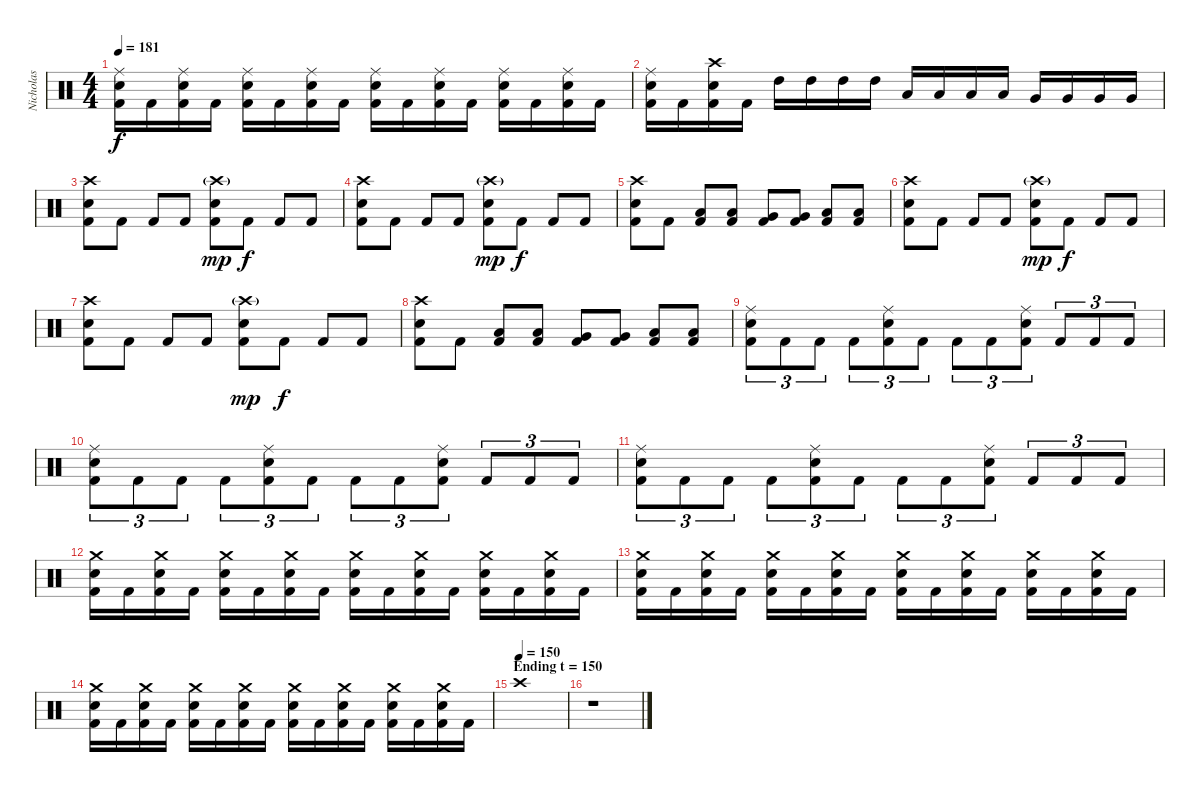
\track ("Nicholas" "Nicholas") {instrument percussion}
\staff {score}
\articulation defaults
\ts (4 4)
\tempo 181
\clef neutral
\ks c
("Ride (middle)" "Electric Snare (hit)" "Kick (hit) 2").16{dy f} "Kick (hit) 2".16 ("Ride (middle)" "Electric Snare (hit)" "Kick (hit) 2").16 "Kick (hit) 2".16 ("Ride (middle)" "Electric Snare (hit)" "Kick (hit) 2").16 "Kick (hit) 2".16 ("Ride (middle)" "Electric Snare (hit)" "Kick (hit) 2").16 "Kick (hit) 2".16 ("Ride (middle)" "Electric Snare (hit)" "Kick (hit) 2").16 "Kick (hit) 2".16 ("Ride (middle)" "Electric Snare (hit)" "Kick (hit) 2").16 "Kick (hit) 2".16 ("Ride (middle)" "Electric Snare (hit)" "Kick (hit) 2").16 "Kick (hit) 2".16 ("Ride (middle)" "Electric Snare (hit)" "Kick (hit) 2").16 "Kick (hit) 2".16 |
("Ride (middle)" "Electric Snare (hit)" "Kick (hit) 2").16 "Kick (hit) 2".16 ("Crash high (hit)" "Electric Snare (hit)" "Kick (hit) 2").16 "Kick (hit) 2".16 "High Tom (hit)".16 "High Tom (hit)".16 "High Tom (hit)".16 "High Tom (hit)".16 "Low Tom (hit)".16 "Low Tom (hit)".16 "Low Tom (hit)".16 "Low Tom (hit)".16 "Very Low Tom (hit)".16 "Very Low Tom (hit)".16 "Very Low Tom (hit)".16 "Very Low Tom (hit)".16 |
("Crash high (hit)" "Electric Snare (hit)" "Kick (hit) 2").8 "Kick (hit) 2".8 "Kick (hit) 2".8 "Kick (hit) 2".8 ("Crash high (hit)"{g} "Electric Snare (hit)" "Kick (hit) 2").8{dy mp} "Kick (hit) 2".8{dy f} "Kick (hit) 2".8 "Kick (hit) 2".8 |
("Crash high (hit)" "Electric Snare (hit)" "Kick (hit) 2").8 "Kick (hit) 2".8 "Kick (hit) 2".8 "Kick (hit) 2".8 ("Crash high (hit)"{g} "Electric Snare (hit)" "Kick (hit) 2").8{dy mp} "Kick (hit) 2".8{dy f} "Kick (hit) 2".8 "Kick (hit) 2".8 |
("Crash high (hit)" "Electric Snare (hit)" "Kick (hit) 2").8 "Kick (hit) 2".8 ("Low Tom (hit)" "Kick (hit) 2").8 ("Low Tom (hit)" "Kick (hit) 2").8 ("Very Low Tom (hit)" "Kick (hit) 2").8 ("Very Low Tom (hit)" "Kick (hit) 2").8 ("Low Floor Tom (hit)" "Kick (hit) 2").8 ("Low Floor Tom (hit)" "Kick (hit) 2").8 |
("Crash high (hit)" "Electric Snare (hit)" "Kick (hit) 2").8 "Kick (hit) 2".8 "Kick (hit) 2".8 "Kick (hit) 2".8 ("Crash high (hit)"{g} "Electric Snare (hit)" "Kick (hit) 2").8{dy mp} "Kick (hit) 2".8{dy f} "Kick (hit) 2".8 "Kick (hit) 2".8 |
("Crash high (hit)" "Electric Snare (hit)" "Kick (hit) 2").8 "Kick (hit) 2".8 "Kick (hit) 2".8 "Kick (hit) 2".8 ("Crash high (hit)"{g} "Electric Snare (hit)" "Kick (hit) 2").8{dy mp} "Kick (hit) 2".8{dy f} "Kick (hit) 2".8 "Kick (hit) 2".8 |
("Crash high (hit)" "Electric Snare (hit)" "Kick (hit) 2").8 "Kick (hit) 2".8 ("Low Tom (hit)" "Kick (hit) 2").8 ("Low Tom (hit)" "Kick (hit) 2").8 ("Very Low Tom (hit)" "Kick (hit) 2").8 ("Very Low Tom (hit)" "Kick (hit) 2").8 ("Low Floor Tom (hit)" "Kick (hit) 2").8 ("Low Floor Tom (hit)" "Kick (hit) 2").8 |
("Ride (middle)" "Electric Snare (hit)" "Kick (hit) 2").8{tu (3 2)} "Kick (hit) 2".8{tu (3 2)} "Kick (hit) 2".8{tu (3 2)} "Kick (hit) 2".8{tu (3 2)} ("Ride (middle)" "Electric Snare (hit)" "Kick (hit) 2").8{tu (3 2)} "Kick (hit) 2".8{tu (3 2)} "Kick (hit) 2".8{tu (3 2)} "Kick (hit) 2".8{tu (3 2)} ("Ride (middle)" "Electric Snare (hit)" "Kick (hit) 2").8{tu (3 2)} "Kick (hit) 2".8{tu (3 2)} "Kick (hit) 2".8{tu (3 2)} "Kick (hit) 2".8{tu (3 2)} |
("Ride (middle)" "Electric Snare (hit)" "Kick (hit) 2").8{tu (3 2)} "Kick (hit) 2".8{tu (3 2)} "Kick (hit) 2".8{tu (3 2)} "Kick (hit) 2".8{tu (3 2)} ("Ride (middle)" "Electric Snare (hit)" "Kick (hit) 2").8{tu (3 2)} "Kick (hit) 2".8{tu (3 2)} "Kick (hit) 2".8{tu (3 2)} "Kick (hit) 2".8{tu (3 2)} ("Ride (middle)" "Electric Snare (hit)" "Kick (hit) 2").8{tu (3 2)} "Kick (hit) 2".8{tu (3 2)} "Kick (hit) 2".8{tu (3 2)} "Kick (hit) 2".8{tu (3 2)} |
("Ride (middle)" "Electric Snare (hit)" "Kick (hit) 2").8{tu (3 2)} "Kick (hit) 2".8{tu (3 2)} "Kick (hit) 2".8{tu (3 2)} "Kick (hit) 2".8{tu (3 2)} ("Ride (middle)" "Electric Snare (hit)" "Kick (hit) 2").8{tu (3 2)} "Kick (hit) 2".8{tu (3 2)} "Kick (hit) 2".8{tu (3 2)} "Kick (hit) 2".8{tu (3 2)} ("Ride (middle)" "Electric Snare (hit)" "Kick (hit) 2").8{tu (3 2)} "Kick (hit) 2".8{tu (3 2)} "Kick (hit) 2".8{tu (3 2)} "Kick (hit) 2".8{tu (3 2)} |
("Crash medium (hit)" "Electric Snare (hit)" "Kick (hit) 2").16 "Kick (hit) 2".16 ("Crash medium (hit)" "Electric Snare (hit)" "Kick (hit) 2").16 "Kick (hit) 2".16 ("Crash medium (hit)" "Electric Snare (hit)" "Kick (hit) 2").16 "Kick (hit) 2".16 ("Crash medium (hit)" "Electric Snare (hit)" "Kick (hit) 2").16 "Kick (hit) 2".16 ("Crash medium (hit)" "Electric Snare (hit)" "Kick (hit) 2").16 "Kick (hit) 2".16 ("Crash medium (hit)" "Electric Snare (hit)" "Kick (hit) 2").16 "Kick (hit) 2".16 ("Crash medium (hit)" "Electric Snare (hit)" "Kick (hit) 2").16 "Kick (hit) 2".16 ("Crash medium (hit)" "Electric Snare (hit)" "Kick (hit) 2").16 "Kick (hit) 2".16 |
("Crash medium (hit)" "Electric Snare (hit)" "Kick (hit) 2").16 "Kick (hit) 2".16 ("Crash medium (hit)" "Electric Snare (hit)" "Kick (hit) 2").16 "Kick (hit) 2".16 ("Crash medium (hit)" "Electric Snare (hit)" "Kick (hit) 2").16 "Kick (hit) 2".16 ("Crash medium (hit)" "Electric Snare (hit)" "Kick (hit) 2").16 "Kick (hit) 2".16 ("Crash medium (hit)" "Electric Snare (hit)" "Kick (hit) 2").16 "Kick (hit) 2".16 ("Crash medium (hit)" "Electric Snare (hit)" "Kick (hit) 2").16 "Kick (hit) 2".16 ("Crash medium (hit)" "Electric Snare (hit)" "Kick (hit) 2").16 "Kick (hit) 2".16 ("Crash medium (hit)" "Electric Snare (hit)" "Kick (hit) 2").16 "Kick (hit) 2".16 |
("Crash medium (hit)" "Electric Snare (hit)" "Kick (hit) 2").16 "Kick (hit) 2".16 ("Crash medium (hit)" "Electric Snare (hit)" "Kick (hit) 2").16 "Kick (hit) 2".16 ("Crash medium (hit)" "Electric Snare (hit)" "Kick (hit) 2").16 "Kick (hit) 2".16 ("Crash medium (hit)" "Electric Snare (hit)" "Kick (hit) 2").16 "Kick (hit) 2".16 ("Crash medium (hit)" "Electric Snare (hit)" "Kick (hit) 2").16 "Kick (hit) 2".16 ("Crash medium (hit)" "Electric Snare (hit)" "Kick (hit) 2").16 "Kick (hit) 2".16 ("Crash medium (hit)" "Electric Snare (hit)" "Kick (hit) 2").16 "Kick (hit) 2".16 ("Crash medium (hit)" "Electric Snare (hit)" "Kick (hit) 2").16 "Kick (hit) 2".16 |
\section ("" "Ending t = 150")
\tempo (150)
"Crash high (hit)".1 |
r.1
